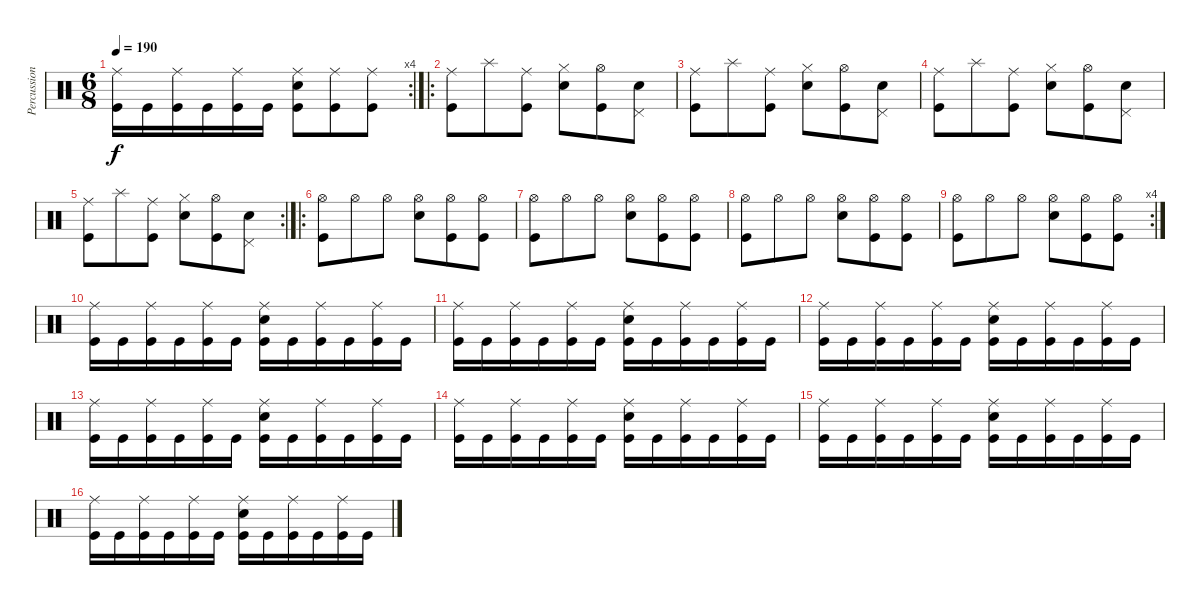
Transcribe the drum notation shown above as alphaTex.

\track ("Percussion" "Percussion") {instrument percussion}
\staff {score}
\articulation defaults
\rc 4
\ts (6 8)
\tempo 190
\clef neutral
\ks c
("Ride (middle)" "Kick (hit)").16{dy f} "Kick (hit)".16 ("Ride (middle)" "Kick (hit)").16 "Kick (hit)".16 ("Ride (middle)" "Kick (hit)").16 "Kick (hit)".16 ("Ride (middle)" "Snare (hit) 2" "Kick (hit)").8 ("Ride (middle)" "Kick (hit)").8 ("Ride (middle)" "Kick (hit)").8 |
\ro
("Ride (middle)" "Kick (hit)").8 "Splash (hit)".8 ("Ride (middle)" "Kick (hit)").8 ("Hi-Hat (closed)" "Snare (hit) 2").8 ("Hi-Hat (open)" "Kick (hit)").8 ("Pedal Hi-Hat (hit)" "Snare (hit) 2").8 |
("Ride (middle)" "Kick (hit)").8 "Splash (hit)".8 ("Ride (middle)" "Kick (hit)").8 ("Hi-Hat (closed)" "Snare (hit) 2").8 ("Hi-Hat (open)" "Kick (hit)").8 ("Pedal Hi-Hat (hit)" "Snare (hit) 2").8 |
("Ride (middle)" "Kick (hit)").8 "Splash (hit)".8 ("Ride (middle)" "Kick (hit)").8 ("Hi-Hat (closed)" "Snare (hit) 2").8 ("Hi-Hat (open)" "Kick (hit)").8 ("Pedal Hi-Hat (hit)" "Snare (hit) 2").8 |
\rc 2
("Ride (middle)" "Kick (hit)").8 "Splash (hit)".8 ("Ride (middle)" "Kick (hit)").8 ("Hi-Hat (closed)" "Snare (hit) 2").8 ("Hi-Hat (open)" "Kick (hit)").8 ("Pedal Hi-Hat (hit)" "Snare (hit) 2").8 |
\ro
("Hi-Hat (open)" "Kick (hit)").8 "Hi-Hat (open)".8 "Hi-Hat (open)".8 ("Hi-Hat (open)" "Snare (hit) 2").8 ("Hi-Hat (open)" "Kick (hit)").8 ("Hi-Hat (open)" "Kick (hit)").8 |
("Hi-Hat (open)" "Kick (hit)").8 "Hi-Hat (open)".8 "Hi-Hat (open)".8 ("Hi-Hat (open)" "Snare (hit) 2").8 ("Hi-Hat (open)" "Kick (hit)").8 ("Hi-Hat (open)" "Kick (hit)").8 |
("Hi-Hat (open)" "Kick (hit)").8 "Hi-Hat (open)".8 "Hi-Hat (open)".8 ("Hi-Hat (open)" "Snare (hit) 2").8 ("Hi-Hat (open)" "Kick (hit)").8 ("Hi-Hat (open)" "Kick (hit)").8 |
\rc 4
("Hi-Hat (open)" "Kick (hit)").8 "Hi-Hat (open)".8 "Hi-Hat (open)".8 ("Hi-Hat (open)" "Snare (hit) 2").8 ("Hi-Hat (open)" "Kick (hit)").8 ("Hi-Hat (open)" "Kick (hit)").8 |
("Ride (middle)" "Kick (hit)").16 "Kick (hit)".16 ("Ride (middle)" "Kick (hit)").16 "Kick (hit)".16 ("Ride (middle)" "Kick (hit)").16 "Kick (hit)".16 ("Ride (middle)" "Snare (hit) 2" "Kick (hit)").16 "Kick (hit)".16 ("Ride (middle)" "Kick (hit)").16 "Kick (hit)".16 ("Ride (middle)" "Kick (hit)").16 "Kick (hit)".16 |
("Ride (middle)" "Kick (hit)").16 "Kick (hit)".16 ("Ride (middle)" "Kick (hit)").16 "Kick (hit)".16 ("Ride (middle)" "Kick (hit)").16 "Kick (hit)".16 ("Ride (middle)" "Snare (hit) 2" "Kick (hit)").16 "Kick (hit)".16 ("Ride (middle)" "Kick (hit)").16 "Kick (hit)".16 ("Ride (middle)" "Kick (hit)").16 "Kick (hit)".16 |
("Ride (middle)" "Kick (hit)").16 "Kick (hit)".16 ("Ride (middle)" "Kick (hit)").16 "Kick (hit)".16 ("Ride (middle)" "Kick (hit)").16 "Kick (hit)".16 ("Ride (middle)" "Snare (hit) 2" "Kick (hit)").16 "Kick (hit)".16 ("Ride (middle)" "Kick (hit)").16 "Kick (hit)".16 ("Ride (middle)" "Kick (hit)").16 "Kick (hit)".16 |
("Ride (middle)" "Kick (hit)").16 "Kick (hit)".16 ("Ride (middle)" "Kick (hit)").16 "Kick (hit)".16 ("Ride (middle)" "Kick (hit)").16 "Kick (hit)".16 ("Ride (middle)" "Snare (hit) 2" "Kick (hit)").16 "Kick (hit)".16 ("Ride (middle)" "Kick (hit)").16 "Kick (hit)".16 ("Ride (middle)" "Kick (hit)").16 "Kick (hit)".16 |
("Ride (middle)" "Kick (hit)").16 "Kick (hit)".16 ("Ride (middle)" "Kick (hit)").16 "Kick (hit)".16 ("Ride (middle)" "Kick (hit)").16 "Kick (hit)".16 ("Ride (middle)" "Snare (hit) 2" "Kick (hit)").16 "Kick (hit)".16 ("Ride (middle)" "Kick (hit)").16 "Kick (hit)".16 ("Ride (middle)" "Kick (hit)").16 "Kick (hit)".16 |
("Ride (middle)" "Kick (hit)").16 "Kick (hit)".16 ("Ride (middle)" "Kick (hit)").16 "Kick (hit)".16 ("Ride (middle)" "Kick (hit)").16 "Kick (hit)".16 ("Ride (middle)" "Snare (hit) 2" "Kick (hit)").16 "Kick (hit)".16 ("Ride (middle)" "Kick (hit)").16 "Kick (hit)".16 ("Ride (middle)" "Kick (hit)").16 "Kick (hit)".16 |
("Ride (middle)" "Kick (hit)").16 "Kick (hit)".16 ("Ride (middle)" "Kick (hit)").16 "Kick (hit)".16 ("Ride (middle)" "Kick (hit)").16 "Kick (hit)".16 ("Ride (middle)" "Snare (hit) 2" "Kick (hit)").16 "Kick (hit)".16 ("Ride (middle)" "Kick (hit)").16 "Kick (hit)".16 ("Ride (middle)" "Kick (hit)").16 "Kick (hit)".16
